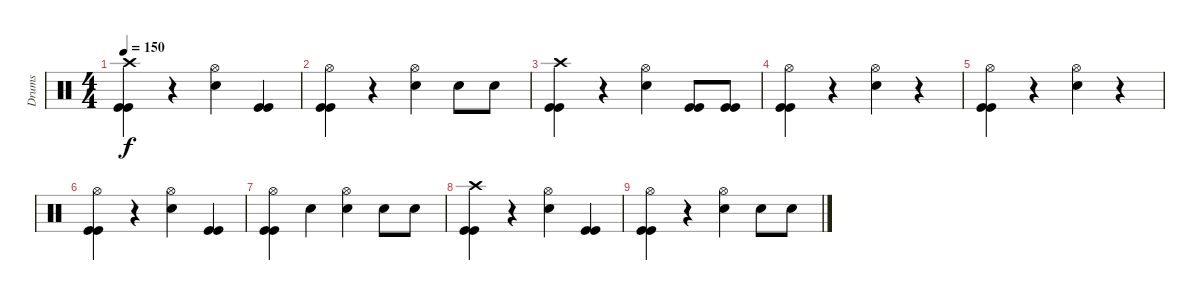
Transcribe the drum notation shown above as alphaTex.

\track ("Drums" "Drums") {instrument percussion}
\staff {score}
\articulation defaults
\ts (4 4)
\tempo 150
\clef neutral
\ks c
("Crash high (hit)" "Kick (hit)" "Kick (hit)").4{dy f} r.4 ("Hi-Hat (open)" "Snare (hit) 2").4 ("Kick (hit)" "Kick (hit)").4 |
("Hi-Hat (open)" "Kick (hit)" "Kick (hit)").4{volume 10} r.4 ("Hi-Hat (open)" "Snare (hit) 2").4 "Snare (hit) 2".8 "Snare (hit) 2".8 |
("Crash high (hit)" "Kick (hit)" "Kick (hit)").4 r.4 ("Hi-Hat (open)" "Snare (hit) 2").4 ("Kick (hit)" "Kick (hit)").8 ("Kick (hit)" "Kick (hit)").8 |
("Hi-Hat (open)" "Kick (hit)" "Kick (hit)").4{volume 7} r.4 ("Hi-Hat (open)" "Snare (hit) 2").4 r.4 |
("Hi-Hat (open)" "Kick (hit)" "Kick (hit)").4 r.4 ("Hi-Hat (open)" "Snare (hit) 2").4 r.4 |
("Hi-Hat (open)" "Kick (hit)" "Kick (hit)").4{volume 4} r.4 ("Hi-Hat (open)" "Snare (hit) 2").4 ("Kick (hit)" "Kick (hit)").4 |
("Hi-Hat (open)" "Kick (hit)" "Kick (hit)").4 "Snare (hit) 2".4 ("Hi-Hat (open)" "Snare (hit) 2").4 "Snare (hit) 2".8 "Snare (hit) 2".8 |
("Crash high (hit)" "Kick (hit)" "Kick (hit)").4{volume 0} r.4 ("Hi-Hat (open)" "Snare (hit) 2").4 ("Kick (hit)" "Kick (hit)").4 |
("Hi-Hat (open)" "Kick (hit)" "Kick (hit)").4 r.4 ("Hi-Hat (open)" "Snare (hit) 2").4 "Snare (hit) 2".8 "Snare (hit) 2".8
